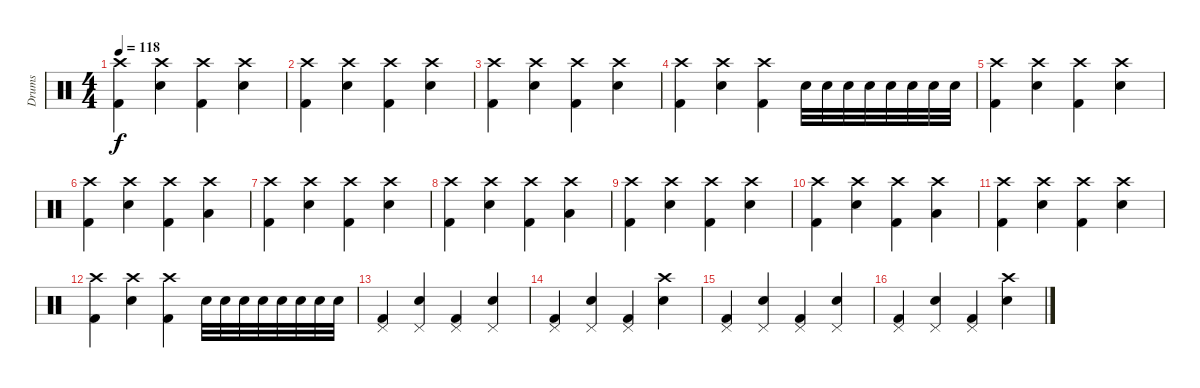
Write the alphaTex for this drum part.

\track ("Drums" "Drums") {instrument percussion}
\staff {score}
\articulation defaults
\ts (4 4)
\tempo 118
\clef neutral
\ks c
("Crash high (hit)" "Kick (hit) 2").4{dy f} ("Crash high (hit)" "Snare (hit) 2").4 ("Crash high (hit)" "Kick (hit) 2").4 ("Crash high (hit)" "Snare (hit) 2").4 |
("Crash high (hit)" "Kick (hit) 2").4 ("Crash high (hit)" "Snare (hit) 2").4 ("Crash high (hit)" "Kick (hit) 2").4 ("Crash high (hit)" "Snare (hit) 2").4 |
("Crash high (hit)" "Kick (hit) 2").4 ("Crash high (hit)" "Snare (hit) 2").4 ("Crash high (hit)" "Kick (hit) 2").4 ("Crash high (hit)" "Snare (hit) 2").4 |
("Crash high (hit)" "Kick (hit) 2").4 ("Crash high (hit)" "Snare (hit) 2").4 ("Crash high (hit)" "Kick (hit) 2").4 "Snare (hit) 2".32 "Snare (hit) 2".32 "Snare (hit) 2".32 "Snare (hit) 2".32 "Snare (hit) 2".32 "Snare (hit) 2".32 "Snare (hit) 2".32 "Snare (hit) 2".32 |
("Crash high (hit)" "Kick (hit) 2").4 ("Crash high (hit)" "Snare (hit) 2").4 ("Crash high (hit)" "Kick (hit) 2").4 ("Crash high (hit)" "Snare (hit) 2").4 |
("Crash high (hit)" "Kick (hit) 2").4 ("Crash high (hit)" "Snare (hit) 2").4 ("Crash high (hit)" "Kick (hit) 2").4 ("Crash high (hit)" "Low Tom (hit)").4 |
("Crash high (hit)" "Kick (hit) 2").4 ("Crash high (hit)" "Snare (hit) 2").4 ("Crash high (hit)" "Kick (hit) 2").4 ("Crash high (hit)" "Snare (hit) 2").4 |
("Crash high (hit)" "Kick (hit) 2").4 ("Crash high (hit)" "Snare (hit) 2").4 ("Crash high (hit)" "Kick (hit) 2").4 ("Crash high (hit)" "Low Tom (hit)").4 |
("Crash high (hit)" "Kick (hit) 2").4 ("Crash high (hit)" "Snare (hit) 2").4 ("Crash high (hit)" "Kick (hit) 2").4 ("Crash high (hit)" "Snare (hit) 2").4 |
("Crash high (hit)" "Kick (hit) 2").4 ("Crash high (hit)" "Snare (hit) 2").4 ("Crash high (hit)" "Kick (hit) 2").4 ("Crash high (hit)" "Low Tom (hit)").4 |
("Crash high (hit)" "Kick (hit) 2").4 ("Crash high (hit)" "Snare (hit) 2").4 ("Crash high (hit)" "Kick (hit) 2").4 ("Crash high (hit)" "Snare (hit) 2").4 |
("Crash high (hit)" "Kick (hit) 2").4 ("Crash high (hit)" "Snare (hit) 2").4 ("Crash high (hit)" "Kick (hit) 2").4 "Snare (hit) 2".32 "Snare (hit) 2".32 "Snare (hit) 2".32 "Snare (hit) 2".32 "Snare (hit) 2".32 "Snare (hit) 2".32 "Snare (hit) 2".32 "Snare (hit) 2".32 |
("Pedal Hi-Hat (hit)" "Kick (hit) 2").4 ("Pedal Hi-Hat (hit)" "Snare (hit) 2").4 ("Pedal Hi-Hat (hit)" "Kick (hit) 2").4 ("Pedal Hi-Hat (hit)" "Snare (hit) 2").4 |
("Pedal Hi-Hat (hit)" "Kick (hit) 2").4 ("Pedal Hi-Hat (hit)" "Snare (hit) 2").4 ("Pedal Hi-Hat (hit)" "Kick (hit) 2").4 ("Crash high (hit)" "Snare (hit) 2").4 |
("Pedal Hi-Hat (hit)" "Kick (hit) 2").4 ("Pedal Hi-Hat (hit)" "Snare (hit) 2").4 ("Pedal Hi-Hat (hit)" "Kick (hit) 2").4 ("Pedal Hi-Hat (hit)" "Snare (hit) 2").4 |
("Pedal Hi-Hat (hit)" "Kick (hit) 2").4 ("Pedal Hi-Hat (hit)" "Snare (hit) 2").4 ("Pedal Hi-Hat (hit)" "Kick (hit) 2").4 ("Crash high (hit)" "Snare (hit) 2").4
